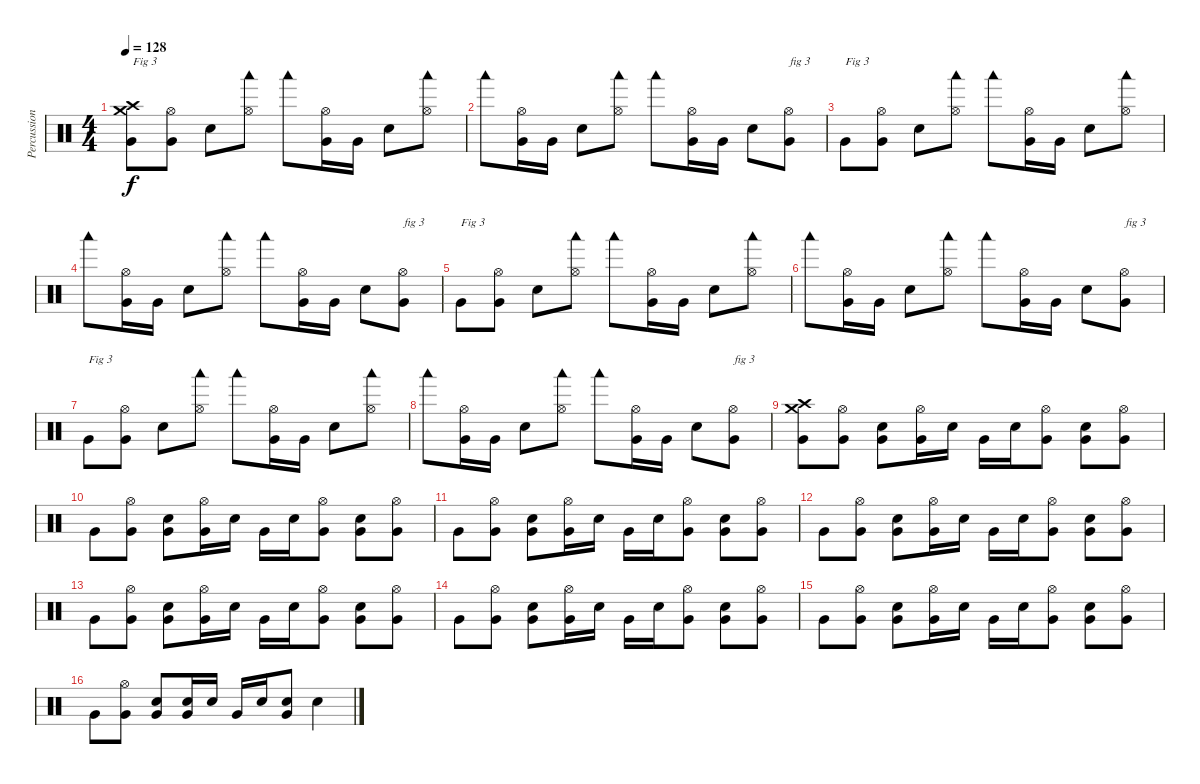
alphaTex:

\track ("Percussions" "Percussion") {instrument percussion}
\staff {score}
\articulation defaults
\ts (4 4)
\tempo 128
\clef neutral
\ks c
("Very Low Tom (hit)" "Crash high (hit)" "Crash medium (hit)").8{txt "Fig 3" dy f} ("Very Low Tom (hit)" "Hi-Hat (open)").8 "Snare (hit) 2".8 ("Woodblock low (hit)" "Hi-Hat (open)").8 "Woodblock low (hit)".8 ("Very Low Tom (hit)" "Hi-Hat (open)").16 "Very Low Tom (hit)".16 "Snare (hit) 2".8 ("Woodblock low (hit)" "Hi-Hat (open)").8 |
"Woodblock low (hit)".8 ("Very Low Tom (hit)" "Hi-Hat (open)").16 "Very Low Tom (hit)".16 "Snare (hit) 2".8 ("Woodblock low (hit)" "Hi-Hat (open)").8 "Woodblock low (hit)".8 ("Very Low Tom (hit)" "Hi-Hat (open)").16 "Very Low Tom (hit)".16 "Snare (hit) 2".8 ("Very Low Tom (hit)" "Hi-Hat (open)").8{txt "fig 3"} |
"Very Low Tom (hit)".8{txt "Fig 3"} ("Very Low Tom (hit)" "Hi-Hat (open)").8 "Snare (hit) 2".8 ("Woodblock low (hit)" "Hi-Hat (open)").8 "Woodblock low (hit)".8 ("Very Low Tom (hit)" "Hi-Hat (open)").16 "Very Low Tom (hit)".16 "Snare (hit) 2".8 ("Woodblock low (hit)" "Hi-Hat (open)").8 |
"Woodblock low (hit)".8 ("Very Low Tom (hit)" "Hi-Hat (open)").16 "Very Low Tom (hit)".16 "Snare (hit) 2".8 ("Woodblock low (hit)" "Hi-Hat (open)").8 "Woodblock low (hit)".8 ("Very Low Tom (hit)" "Hi-Hat (open)").16 "Very Low Tom (hit)".16 "Snare (hit) 2".8 ("Very Low Tom (hit)" "Hi-Hat (open)").8{txt "fig 3"} |
"Very Low Tom (hit)".8{txt "Fig 3"} ("Very Low Tom (hit)" "Hi-Hat (open)").8 "Snare (hit) 2".8 ("Woodblock low (hit)" "Hi-Hat (open)").8 "Woodblock low (hit)".8 ("Very Low Tom (hit)" "Hi-Hat (open)").16 "Very Low Tom (hit)".16 "Snare (hit) 2".8 ("Woodblock low (hit)" "Hi-Hat (open)").8 |
"Woodblock low (hit)".8 ("Very Low Tom (hit)" "Hi-Hat (open)").16 "Very Low Tom (hit)".16 "Snare (hit) 2".8 ("Woodblock low (hit)" "Hi-Hat (open)").8 "Woodblock low (hit)".8 ("Very Low Tom (hit)" "Hi-Hat (open)").16 "Very Low Tom (hit)".16 "Snare (hit) 2".8 ("Very Low Tom (hit)" "Hi-Hat (open)").8{txt "fig 3"} |
"Very Low Tom (hit)".8{txt "Fig 3"} ("Very Low Tom (hit)" "Hi-Hat (open)").8 "Snare (hit) 2".8 ("Woodblock low (hit)" "Hi-Hat (open)").8 "Woodblock low (hit)".8 ("Very Low Tom (hit)" "Hi-Hat (open)").16 "Very Low Tom (hit)".16 "Snare (hit) 2".8 ("Woodblock low (hit)" "Hi-Hat (open)").8 |
"Woodblock low (hit)".8 ("Very Low Tom (hit)" "Hi-Hat (open)").16 "Very Low Tom (hit)".16 "Snare (hit) 2".8 ("Woodblock low (hit)" "Hi-Hat (open)").8 "Woodblock low (hit)".8 ("Very Low Tom (hit)" "Hi-Hat (open)").16 "Very Low Tom (hit)".16 "Snare (hit) 2".8 ("Very Low Tom (hit)" "Hi-Hat (open)").8{txt "fig 3"} |
("Very Low Tom (hit)" "Crash high (hit)" "Crash medium (hit)").8 ("Very Low Tom (hit)" "Hi-Hat (open)").8 ("Very Low Tom (hit)" "Snare (hit) 2").8 ("Very Low Tom (hit)" "Hi-Hat (open)").16 "Snare (hit) 2".16 "Very Low Tom (hit)".16 "Snare (hit) 2".16 ("Very Low Tom (hit)" "Hi-Hat (open)").8 ("Very Low Tom (hit)" "Snare (hit) 2").8 ("Very Low Tom (hit)" "Hi-Hat (open)").8 |
"Very Low Tom (hit)".8 ("Very Low Tom (hit)" "Hi-Hat (open)").8 ("Very Low Tom (hit)" "Snare (hit) 2").8 ("Very Low Tom (hit)" "Hi-Hat (open)").16 "Snare (hit) 2".16 "Very Low Tom (hit)".16 "Snare (hit) 2".16 ("Very Low Tom (hit)" "Hi-Hat (open)").8 ("Very Low Tom (hit)" "Snare (hit) 2").8 ("Very Low Tom (hit)" "Hi-Hat (open)").8 |
"Very Low Tom (hit)".8 ("Very Low Tom (hit)" "Hi-Hat (open)").8 ("Very Low Tom (hit)" "Snare (hit) 2").8 ("Very Low Tom (hit)" "Hi-Hat (open)").16 "Snare (hit) 2".16 "Very Low Tom (hit)".16 "Snare (hit) 2".16 ("Very Low Tom (hit)" "Hi-Hat (open)").8 ("Very Low Tom (hit)" "Snare (hit) 2").8 ("Very Low Tom (hit)" "Hi-Hat (open)").8 |
"Very Low Tom (hit)".8 ("Very Low Tom (hit)" "Hi-Hat (open)").8 ("Very Low Tom (hit)" "Snare (hit) 2").8 ("Very Low Tom (hit)" "Hi-Hat (open)").16 "Snare (hit) 2".16 "Very Low Tom (hit)".16 "Snare (hit) 2".16 ("Very Low Tom (hit)" "Hi-Hat (open)").8 ("Very Low Tom (hit)" "Snare (hit) 2").8 ("Very Low Tom (hit)" "Hi-Hat (open)").8 |
"Very Low Tom (hit)".8 ("Very Low Tom (hit)" "Hi-Hat (open)").8 ("Very Low Tom (hit)" "Snare (hit) 2").8 ("Very Low Tom (hit)" "Hi-Hat (open)").16 "Snare (hit) 2".16 "Very Low Tom (hit)".16 "Snare (hit) 2".16 ("Very Low Tom (hit)" "Hi-Hat (open)").8 ("Very Low Tom (hit)" "Snare (hit) 2").8 ("Very Low Tom (hit)" "Hi-Hat (open)").8 |
"Very Low Tom (hit)".8 ("Very Low Tom (hit)" "Hi-Hat (open)").8 ("Very Low Tom (hit)" "Snare (hit) 2").8 ("Very Low Tom (hit)" "Hi-Hat (open)").16 "Snare (hit) 2".16 "Very Low Tom (hit)".16 "Snare (hit) 2".16 ("Very Low Tom (hit)" "Hi-Hat (open)").8 ("Very Low Tom (hit)" "Snare (hit) 2").8 ("Very Low Tom (hit)" "Hi-Hat (open)").8 |
"Very Low Tom (hit)".8 ("Very Low Tom (hit)" "Hi-Hat (open)").8 ("Very Low Tom (hit)" "Snare (hit) 2").8 ("Very Low Tom (hit)" "Hi-Hat (open)").16 "Snare (hit) 2".16 "Very Low Tom (hit)".16 "Snare (hit) 2".16 ("Very Low Tom (hit)" "Hi-Hat (open)").8 ("Very Low Tom (hit)" "Snare (hit) 2").8 ("Very Low Tom (hit)" "Hi-Hat (open)").8 |
"Very Low Tom (hit)".8 ("Very Low Tom (hit)" "Hi-Hat (open)").8 ("Very Low Tom (hit)" "Snare (hit) 2").8 ("Very Low Tom (hit)" "Snare (hit) 2").16 "Snare (hit) 2".16 "Very Low Tom (hit)".16 "Snare (hit) 2".16 ("Very Low Tom (hit)" "Snare (hit) 2").8 "Snare (hit) 2".4
